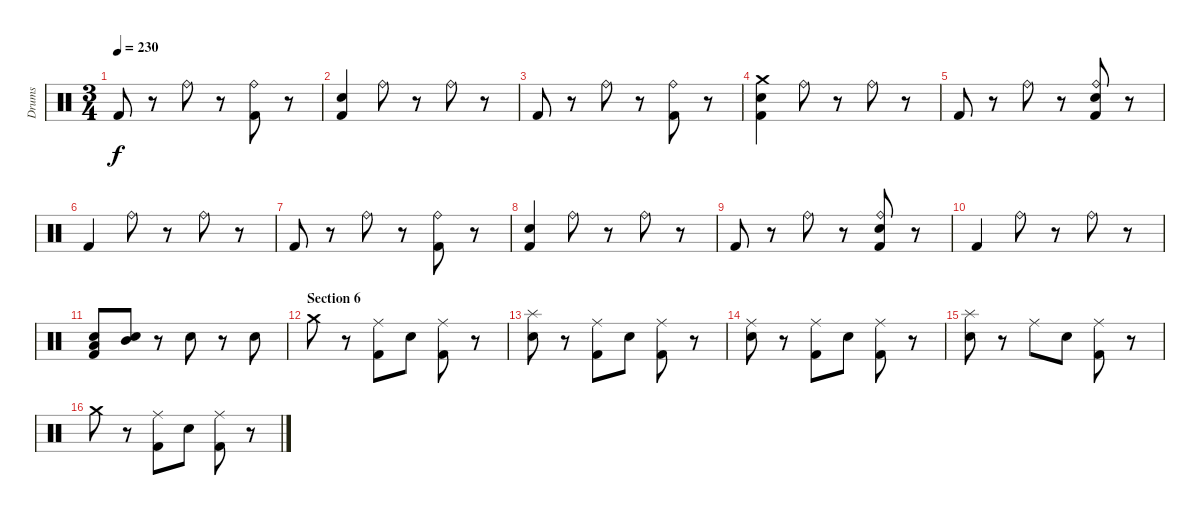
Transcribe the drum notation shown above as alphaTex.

\track ("Drums" "Drums") {instrument percussion}
\staff {score}
\articulation defaults
\ts (3 4)
\tempo 230
\clef neutral
\ks c "Kick (hit) 2".8{dy f}
r.8 "Ride (bell)".8 r.8 ("Ride (bell)" "Kick (hit) 2").8 r.8 |
("Electric Snare (hit)" "Kick (hit) 2").4 "Ride (bell)".8 r.8 "Ride (bell)".8 r.8 |
"Kick (hit) 2".8 r.8 "Ride (bell)".8 r.8 ("Ride (bell)" "Kick (hit) 2").8 r.8 |
("Crash medium (hit)" "Electric Snare (hit)" "Kick (hit) 2").4 "Ride (bell)".8 r.8 "Ride (bell)".8 r.8 |
"Kick (hit) 2".8 r.8 "Ride (bell)".8 r.8 ("Ride (bell)" "Electric Snare (hit)" "Kick (hit) 2").8 r.8 |
"Kick (hit) 2".4 "Ride (bell)".8 r.8 "Ride (bell)".8 r.8 |
"Kick (hit) 2".8 r.8 "Ride (bell)".8 r.8 ("Ride (bell)" "Kick (hit) 2").8 r.8 |
("Electric Snare (hit)" "Kick (hit) 2").4 "Ride (bell)".8 r.8 "Ride (bell)".8 r.8 |
"Kick (hit) 2".8 r.8 "Ride (bell)".8 r.8 ("Ride (bell)" "Electric Snare (hit)" "Kick (hit) 2").8 r.8 |
"Kick (hit) 2".4 "Ride (bell)".8 r.8 "Ride (bell)".8 r.8 |
("Electric Snare (hit)" "Low Tom (hit)" "Kick (hit) 2").8 ("Mid Tom (hit)" "Electric Snare (hit)").8 r.8 "Electric Snare (hit)".8 r.8 "Electric Snare (hit)".8 |
\section ("" "Section 6")
"Crash medium (hit)".8 r.8 ("Ride (middle)" "Kick (hit) 2").8 "Electric Snare (hit)".8 ("Ride (middle)" "Kick (hit) 2").8 r.8 |
("Splash (hit)" "Electric Snare (hit)").8 r.8 ("Ride (middle)" "Kick (hit) 2").8 "Electric Snare (hit)".8 ("Ride (middle)" "Kick (hit) 2").8 r.8 |
("Ride (middle)" "Electric Snare (hit)").8 r.8 ("Ride (middle)" "Kick (hit) 2").8 "Electric Snare (hit)".8 ("Ride (middle)" "Kick (hit) 2").8 r.8 |
("Splash (hit)" "Electric Snare (hit)").8 r.8 "Ride (middle)".8 "Electric Snare (hit)".8 ("Ride (middle)" "Kick (hit) 2").8 r.8 |
"Crash medium (hit)".8 r.8 ("Ride (middle)" "Kick (hit) 2").8 "Electric Snare (hit)".8 ("Ride (middle)" "Kick (hit) 2").8 r.8
